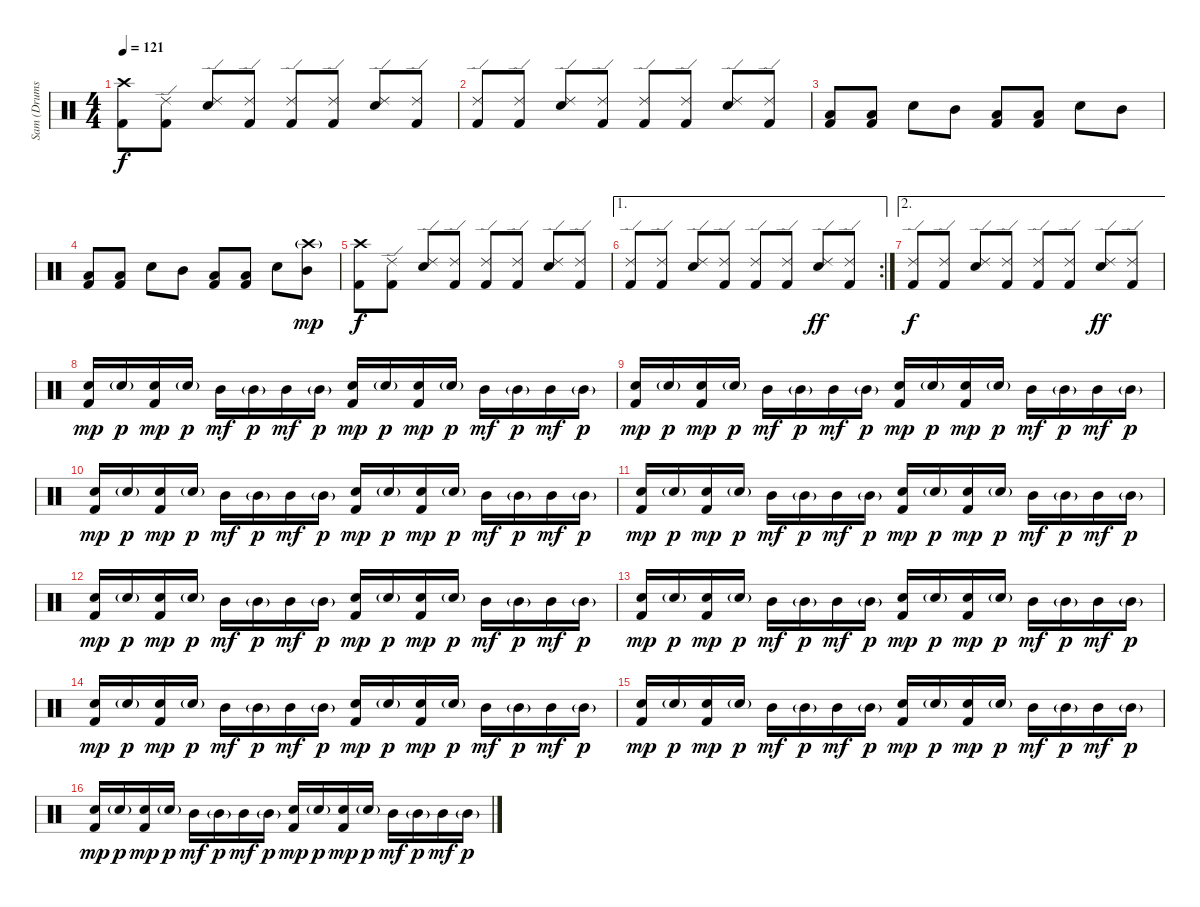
\track ("Sam (Drums)" "Sam (Drums") {instrument percussion}
\staff {score}
\articulation defaults
\ts (4 4)
\tempo 121
\clef neutral
\ks c
("Crash high (hit)" "Kick (hit) 2").8{dy f} ("Ride (edge) 2" "Kick (hit) 2").8 ("Ride (edge) 2" "Snare (hit) 2").8 ("Ride (edge) 2" "Kick (hit) 2").8 ("Ride (edge) 2" "Kick (hit) 2").8 ("Ride (edge) 2" "Kick (hit) 2").8 ("Ride (edge) 2" "Snare (hit) 2").8 ("Ride (edge) 2" "Kick (hit) 2").8 |
("Ride (edge) 2" "Kick (hit) 2").8 ("Ride (edge) 2" "Kick (hit) 2").8 ("Ride (edge) 2" "Snare (hit) 2").8 ("Ride (edge) 2" "Kick (hit) 2").8 ("Ride (edge) 2" "Kick (hit) 2").8 ("Ride (edge) 2" "Kick (hit) 2").8 ("Ride (edge) 2" "Snare (hit) 2").8 ("Ride (edge) 2" "Kick (hit) 2").8 |
("Low Floor Tom (hit)" "Kick (hit) 2").8 ("Low Floor Tom (hit)" "Kick (hit) 2").8 "Snare (hit) 2".8 "Mid Tom (hit)".8 ("Low Floor Tom (hit)" "Kick (hit) 2").8 ("Low Floor Tom (hit)" "Kick (hit) 2").8 "Snare (hit) 2".8 "Mid Tom (hit)".8 |
("Low Floor Tom (hit)" "Kick (hit) 2").8 ("Low Floor Tom (hit)" "Kick (hit) 2").8 "Snare (hit) 2".8 "Mid Tom (hit)".8 ("Low Floor Tom (hit)" "Kick (hit) 2").8 ("Low Floor Tom (hit)" "Kick (hit) 2").8 "Snare (hit) 2".8 ("Crash high (hit)"{g} "Mid Tom (hit)").8{dy mp} |
("Crash high (hit)" "Kick (hit) 2").8{dy f} ("Ride (edge) 2" "Kick (hit) 2").8 ("Ride (edge) 2" "Snare (hit) 2").8 ("Ride (edge) 2" "Kick (hit) 2").8 ("Ride (edge) 2" "Kick (hit) 2").8 ("Ride (edge) 2" "Kick (hit) 2").8 ("Ride (edge) 2" "Snare (hit) 2").8 ("Ride (edge) 2" "Kick (hit) 2").8 |
\ae 1
\rc 2
("Ride (edge) 2" "Kick (hit) 2").8 ("Ride (edge) 2" "Kick (hit) 2").8 ("Ride (edge) 2" "Snare (hit) 2").8 ("Ride (edge) 2" "Kick (hit) 2").8 ("Ride (edge) 2" "Kick (hit) 2").8 ("Ride (edge) 2" "Kick (hit) 2").8 ("Ride (edge) 2" "Snare (hit) 2").8{dy ff} ("Ride (edge) 2" "Kick (hit) 2").8 |
\ae 2
("Ride (edge) 2" "Kick (hit) 2").8{dy f} ("Ride (edge) 2" "Kick (hit) 2").8 ("Ride (edge) 2" "Snare (hit) 2").8 ("Ride (edge) 2" "Kick (hit) 2").8 ("Ride (edge) 2" "Kick (hit) 2").8 ("Ride (edge) 2" "Kick (hit) 2").8 ("Ride (edge) 2" "Snare (hit) 2").8{dy ff} ("Ride (edge) 2" "Kick (hit) 2").8 |
("Snare (hit) 2" "Kick (hit) 2").16{dy mp} "Snare (hit) 2"{g}.16{dy p} ("Snare (hit) 2" "Kick (hit) 2").16{dy mp} "Snare (hit) 2"{g}.16{dy p} "Mid Tom (hit)".16{dy mf} "Mid Tom (hit)"{g}.16{dy p} "Mid Tom (hit)".16{dy mf} "Mid Tom (hit)"{g}.16{dy p} ("Snare (hit) 2" "Kick (hit) 2").16{dy mp} "Snare (hit) 2"{g}.16{dy p} ("Snare (hit) 2" "Kick (hit) 2").16{dy mp} "Snare (hit) 2"{g}.16{dy p} "Mid Tom (hit)".16{dy mf} "Mid Tom (hit)"{g}.16{dy p} "Mid Tom (hit)".16{dy mf} "Mid Tom (hit)"{g}.16{dy p} |
("Snare (hit) 2" "Kick (hit) 2").16{dy mp} "Snare (hit) 2"{g}.16{dy p} ("Snare (hit) 2" "Kick (hit) 2").16{dy mp} "Snare (hit) 2"{g}.16{dy p} "Mid Tom (hit)".16{dy mf} "Mid Tom (hit)"{g}.16{dy p} "Mid Tom (hit)".16{dy mf} "Mid Tom (hit)"{g}.16{dy p} ("Snare (hit) 2" "Kick (hit) 2").16{dy mp} "Snare (hit) 2"{g}.16{dy p} ("Snare (hit) 2" "Kick (hit) 2").16{dy mp} "Snare (hit) 2"{g}.16{dy p} "Mid Tom (hit)".16{dy mf} "Mid Tom (hit)"{g}.16{dy p} "Mid Tom (hit)".16{dy mf} "Mid Tom (hit)"{g}.16{dy p} |
("Snare (hit) 2" "Kick (hit) 2").16{dy mp} "Snare (hit) 2"{g}.16{dy p} ("Snare (hit) 2" "Kick (hit) 2").16{dy mp} "Snare (hit) 2"{g}.16{dy p} "Mid Tom (hit)".16{dy mf} "Mid Tom (hit)"{g}.16{dy p} "Mid Tom (hit)".16{dy mf} "Mid Tom (hit)"{g}.16{dy p} ("Snare (hit) 2" "Kick (hit) 2").16{dy mp} "Snare (hit) 2"{g}.16{dy p} ("Snare (hit) 2" "Kick (hit) 2").16{dy mp} "Snare (hit) 2"{g}.16{dy p} "Mid Tom (hit)".16{dy mf} "Mid Tom (hit)"{g}.16{dy p} "Mid Tom (hit)".16{dy mf} "Mid Tom (hit)"{g}.16{dy p} |
("Snare (hit) 2" "Kick (hit) 2").16{dy mp} "Snare (hit) 2"{g}.16{dy p} ("Snare (hit) 2" "Kick (hit) 2").16{dy mp} "Snare (hit) 2"{g}.16{dy p} "Mid Tom (hit)".16{dy mf} "Mid Tom (hit)"{g}.16{dy p} "Mid Tom (hit)".16{dy mf} "Mid Tom (hit)"{g}.16{dy p} ("Snare (hit) 2" "Kick (hit) 2").16{dy mp} "Snare (hit) 2"{g}.16{dy p} ("Snare (hit) 2" "Kick (hit) 2").16{dy mp} "Snare (hit) 2"{g}.16{dy p} "Mid Tom (hit)".16{dy mf} "Mid Tom (hit)"{g}.16{dy p} "Mid Tom (hit)".16{dy mf} "Mid Tom (hit)"{g}.16{dy p} |
("Snare (hit) 2" "Kick (hit) 2").16{dy mp} "Snare (hit) 2"{g}.16{dy p} ("Snare (hit) 2" "Kick (hit) 2").16{dy mp} "Snare (hit) 2"{g}.16{dy p} "Mid Tom (hit)".16{dy mf} "Mid Tom (hit)"{g}.16{dy p} "Mid Tom (hit)".16{dy mf} "Mid Tom (hit)"{g}.16{dy p} ("Snare (hit) 2" "Kick (hit) 2").16{dy mp} "Snare (hit) 2"{g}.16{dy p} ("Snare (hit) 2" "Kick (hit) 2").16{dy mp} "Snare (hit) 2"{g}.16{dy p} "Mid Tom (hit)".16{dy mf} "Mid Tom (hit)"{g}.16{dy p} "Mid Tom (hit)".16{dy mf} "Mid Tom (hit)"{g}.16{dy p} |
("Snare (hit) 2" "Kick (hit) 2").16{dy mp} "Snare (hit) 2"{g}.16{dy p} ("Snare (hit) 2" "Kick (hit) 2").16{dy mp} "Snare (hit) 2"{g}.16{dy p} "Mid Tom (hit)".16{dy mf} "Mid Tom (hit)"{g}.16{dy p} "Mid Tom (hit)".16{dy mf} "Mid Tom (hit)"{g}.16{dy p} ("Snare (hit) 2" "Kick (hit) 2").16{dy mp} "Snare (hit) 2"{g}.16{dy p} ("Snare (hit) 2" "Kick (hit) 2").16{dy mp} "Snare (hit) 2"{g}.16{dy p} "Mid Tom (hit)".16{dy mf} "Mid Tom (hit)"{g}.16{dy p} "Mid Tom (hit)".16{dy mf} "Mid Tom (hit)"{g}.16{dy p} |
("Snare (hit) 2" "Kick (hit) 2").16{dy mp} "Snare (hit) 2"{g}.16{dy p} ("Snare (hit) 2" "Kick (hit) 2").16{dy mp} "Snare (hit) 2"{g}.16{dy p} "Mid Tom (hit)".16{dy mf} "Mid Tom (hit)"{g}.16{dy p} "Mid Tom (hit)".16{dy mf} "Mid Tom (hit)"{g}.16{dy p} ("Snare (hit) 2" "Kick (hit) 2").16{dy mp} "Snare (hit) 2"{g}.16{dy p} ("Snare (hit) 2" "Kick (hit) 2").16{dy mp} "Snare (hit) 2"{g}.16{dy p} "Mid Tom (hit)".16{dy mf} "Mid Tom (hit)"{g}.16{dy p} "Mid Tom (hit)".16{dy mf} "Mid Tom (hit)"{g}.16{dy p} |
("Snare (hit) 2" "Kick (hit) 2").16{dy mp} "Snare (hit) 2"{g}.16{dy p} ("Snare (hit) 2" "Kick (hit) 2").16{dy mp} "Snare (hit) 2"{g}.16{dy p} "Mid Tom (hit)".16{dy mf} "Mid Tom (hit)"{g}.16{dy p} "Mid Tom (hit)".16{dy mf} "Mid Tom (hit)"{g}.16{dy p} ("Snare (hit) 2" "Kick (hit) 2").16{dy mp} "Snare (hit) 2"{g}.16{dy p} ("Snare (hit) 2" "Kick (hit) 2").16{dy mp} "Snare (hit) 2"{g}.16{dy p} "Mid Tom (hit)".16{dy mf} "Mid Tom (hit)"{g}.16{dy p} "Mid Tom (hit)".16{dy mf} "Mid Tom (hit)"{g}.16{dy p} |
("Snare (hit) 2" "Kick (hit) 2").16{dy mp} "Snare (hit) 2"{g}.16{dy p} ("Snare (hit) 2" "Kick (hit) 2").16{dy mp} "Snare (hit) 2"{g}.16{dy p} "Mid Tom (hit)".16{dy mf} "Mid Tom (hit)"{g}.16{dy p} "Mid Tom (hit)".16{dy mf} "Mid Tom (hit)"{g}.16{dy p} ("Snare (hit) 2" "Kick (hit) 2").16{dy mp} "Snare (hit) 2"{g}.16{dy p} ("Snare (hit) 2" "Kick (hit) 2").16{dy mp} "Snare (hit) 2"{g}.16{dy p} "Mid Tom (hit)".16{dy mf} "Mid Tom (hit)"{g}.16{dy p} "Mid Tom (hit)".16{dy mf} "Mid Tom (hit)"{g}.16{dy p}
